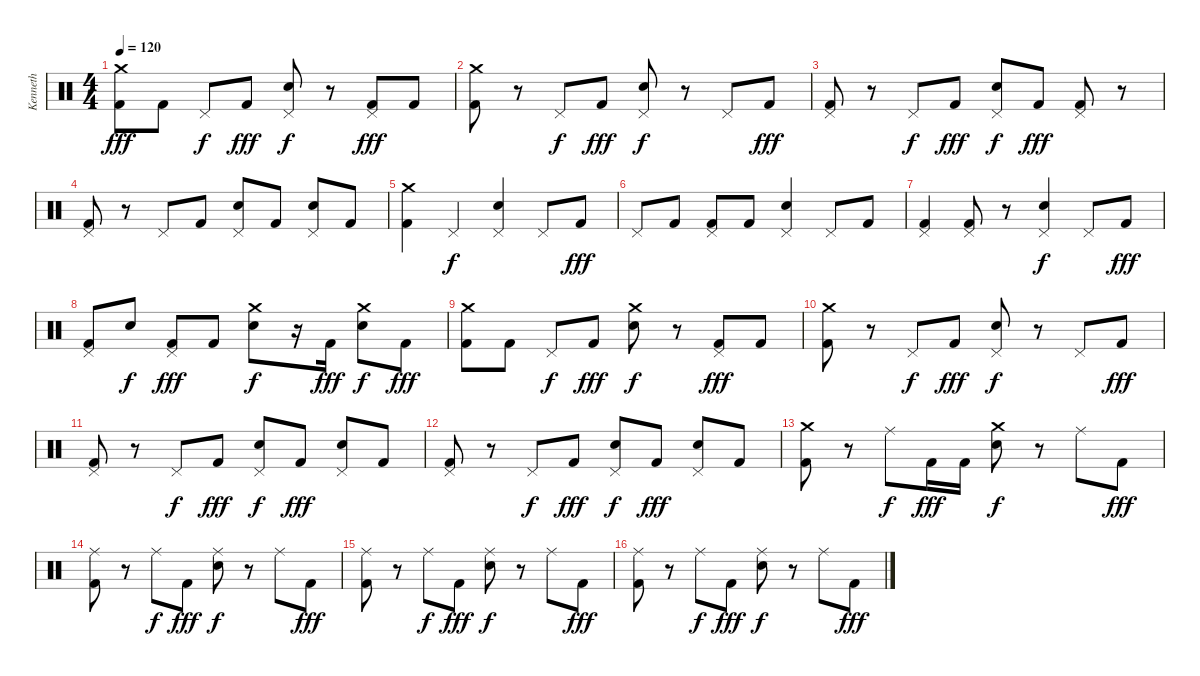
\track ("Kenneth" "Kenneth") {instrument percussion}
\staff {score}
\articulation defaults
\ts (4 4)
\tempo 120
\clef neutral
\ks c
("Crash medium (hit)" "Kick (hit) 2").8{dy fff} "Kick (hit) 2".8 "Pedal Hi-Hat (hit)".8{dy f} "Kick (hit) 2".8{dy fff} ("Pedal Hi-Hat (hit)" "Electric Snare (hit)").8{dy f} r.8 ("Pedal Hi-Hat (hit)" "Kick (hit) 2").8{dy fff} "Kick (hit) 2".8 |
("Crash medium (hit)" "Kick (hit) 2").8 r.8 "Pedal Hi-Hat (hit)".8{dy f} "Kick (hit) 2".8{dy fff} ("Pedal Hi-Hat (hit)" "Electric Snare (hit)").8{dy f} r.8 "Pedal Hi-Hat (hit)".8 "Kick (hit) 2".8{dy fff} |
("Pedal Hi-Hat (hit)" "Kick (hit) 2").8 r.8 "Pedal Hi-Hat (hit)".8{dy f} "Kick (hit) 2".8{dy fff} ("Pedal Hi-Hat (hit)" "Electric Snare (hit)").8{dy f} "Kick (hit) 2".8{dy fff} ("Pedal Hi-Hat (hit)" "Kick (hit) 2").8 r.8 |
("Pedal Hi-Hat (hit)" "Kick (hit) 2").8 r.8 "Pedal Hi-Hat (hit)".8 "Kick (hit) 2".8 ("Pedal Hi-Hat (hit)" "Electric Snare (hit)").8 "Kick (hit) 2".8 ("Pedal Hi-Hat (hit)" "Electric Snare (hit)").8 "Kick (hit) 2".8 |
("Crash medium (hit)" "Kick (hit) 2").4 "Pedal Hi-Hat (hit)".4{dy f} ("Pedal Hi-Hat (hit)" "Electric Snare (hit)").4 "Pedal Hi-Hat (hit)".8 "Kick (hit) 2".8{dy fff} |
"Pedal Hi-Hat (hit)".8 "Kick (hit) 2".8 ("Pedal Hi-Hat (hit)" "Kick (hit) 2").8 "Kick (hit) 2".8 ("Pedal Hi-Hat (hit)" "Electric Snare (hit)").4 "Pedal Hi-Hat (hit)".8 "Kick (hit) 2".8 |
("Pedal Hi-Hat (hit)" "Kick (hit) 2").4 ("Pedal Hi-Hat (hit)" "Kick (hit) 2").8 r.8 ("Pedal Hi-Hat (hit)" "Electric Snare (hit)").4{dy f} "Pedal Hi-Hat (hit)".8 "Kick (hit) 2".8{dy fff} |
("Pedal Hi-Hat (hit)" "Kick (hit) 2").8 "Electric Snare (hit)".8{dy f} ("Pedal Hi-Hat (hit)" "Kick (hit) 2").8{dy fff} "Kick (hit) 2".8 ("Crash medium (hit)" "Electric Snare (hit)").8{dy f} r.16 "Kick (hit) 2".16{dy fff} ("Crash medium (hit)" "Electric Snare (hit)").8{dy f} "Kick (hit) 2".8{dy fff} |
("Crash medium (hit)" "Kick (hit) 2").8 "Kick (hit) 2".8 "Pedal Hi-Hat (hit)".8{dy f} "Kick (hit) 2".8{dy fff} ("Crash medium (hit)" "Electric Snare (hit)").8{dy f} r.8 ("Pedal Hi-Hat (hit)" "Kick (hit) 2").8{dy fff} "Kick (hit) 2".8 |
("Crash medium (hit)" "Kick (hit) 2").8 r.8 "Pedal Hi-Hat (hit)".8{dy f} "Kick (hit) 2".8{dy fff} ("Pedal Hi-Hat (hit)" "Electric Snare (hit)").8{dy f} r.8 "Pedal Hi-Hat (hit)".8 "Kick (hit) 2".8{dy fff} |
("Pedal Hi-Hat (hit)" "Kick (hit) 2").8 r.8 "Pedal Hi-Hat (hit)".8{dy f} "Kick (hit) 2".8{dy fff} ("Pedal Hi-Hat (hit)" "Electric Snare (hit)").8{dy f} "Kick (hit) 2".8{dy fff} ("Pedal Hi-Hat (hit)" "Electric Snare (hit)").8 "Kick (hit) 2".8 |
("Pedal Hi-Hat (hit)" "Kick (hit) 2").8 r.8 "Pedal Hi-Hat (hit)".8{dy f} "Kick (hit) 2".8{dy fff} ("Pedal Hi-Hat (hit)" "Electric Snare (hit)").8{dy f} "Kick (hit) 2".8{dy fff} ("Pedal Hi-Hat (hit)" "Electric Snare (hit)").8 "Kick (hit) 2".8 |
("Crash medium (hit)" "Kick (hit) 2").8 r.8 "Ride (middle)".8{dy f} "Kick (hit) 2".16{dy fff} "Kick (hit) 2".16 ("Crash medium (hit)" "Electric Snare (hit)").8{dy f} r.8 "Ride (middle)".8 "Kick (hit) 2".8{dy fff} |
("Ride (middle)" "Kick (hit) 2").8 r.8 "Ride (middle)".8{dy f} "Kick (hit) 2".8{dy fff} ("Ride (middle)" "Electric Snare (hit)").8{dy f} r.8 "Ride (middle)".8 "Kick (hit) 2".8{dy fff} |
("Ride (middle)" "Kick (hit) 2").8 r.8 "Ride (middle)".8{dy f} "Kick (hit) 2".8{dy fff} ("Ride (middle)" "Electric Snare (hit)").8{dy f} r.8 "Ride (middle)".8 "Kick (hit) 2".8{dy fff} |
("Ride (middle)" "Kick (hit) 2").8 r.8 "Ride (middle)".8{dy f} "Kick (hit) 2".8{dy fff} ("Ride (middle)" "Electric Snare (hit)").8{dy f} r.8 "Ride (middle)".8 "Kick (hit) 2".8{dy fff}
